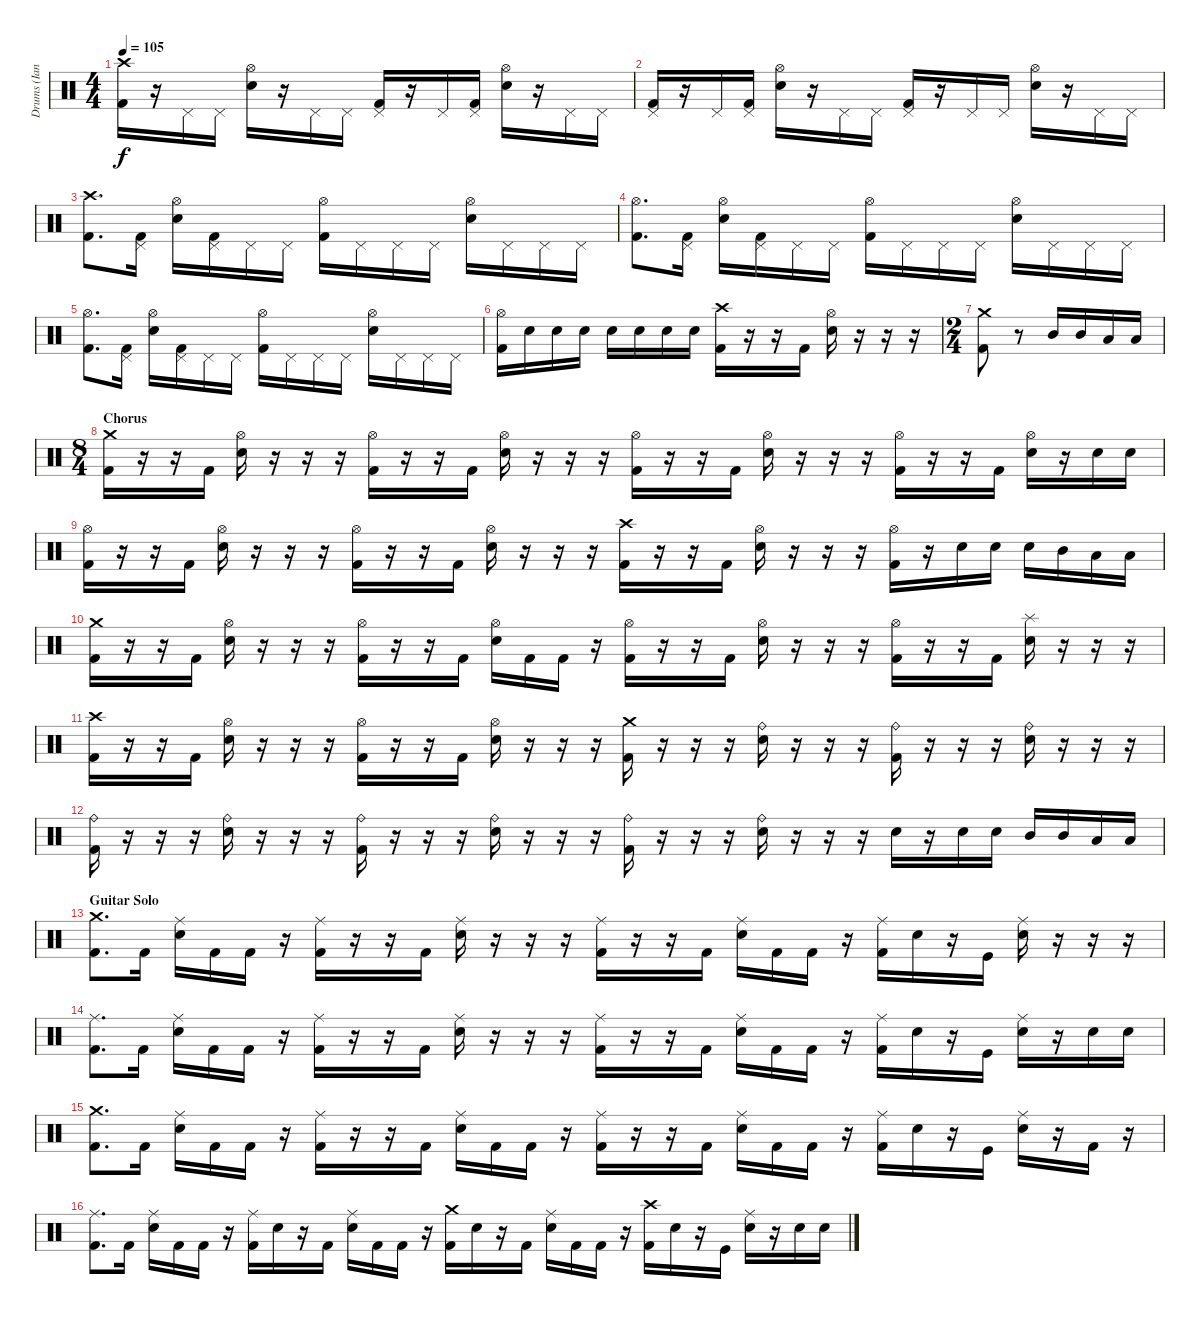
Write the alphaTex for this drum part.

\track ("Drums (Ian Paice)" "Drums (Ian") {instrument percussion}
\staff {score}
\articulation defaults
\ts (4 4)
\tempo 105
\clef neutral
\ks c
("Crash high (hit)" "Kick (hit) 2").16{dy f} r.16 "Pedal Hi-Hat (hit)".16 "Pedal Hi-Hat (hit)".16 ("Hi-Hat (open)" "Electric Snare (hit)").16 r.16 "Pedal Hi-Hat (hit)".16 "Pedal Hi-Hat (hit)".16 ("Pedal Hi-Hat (hit)" "Kick (hit) 2").16 r.16 "Pedal Hi-Hat (hit)".16 ("Pedal Hi-Hat (hit)" "Kick (hit) 2").16 ("Hi-Hat (open)" "Electric Snare (hit)").16 r.16 "Pedal Hi-Hat (hit)".16 "Pedal Hi-Hat (hit)".16 |
("Pedal Hi-Hat (hit)" "Kick (hit) 2").16 r.16 "Pedal Hi-Hat (hit)".16 ("Pedal Hi-Hat (hit)" "Kick (hit) 2").16 ("Hi-Hat (open)" "Electric Snare (hit)").16 r.16 "Pedal Hi-Hat (hit)".16 "Pedal Hi-Hat (hit)".16 ("Pedal Hi-Hat (hit)" "Kick (hit) 2").16 r.16 "Pedal Hi-Hat (hit)".16 "Pedal Hi-Hat (hit)".16 ("Hi-Hat (open)" "Electric Snare (hit)").16 r.16 "Pedal Hi-Hat (hit)".16 "Pedal Hi-Hat (hit)".16 |
("Crash high (hit)" "Kick (hit) 2").8{d} ("Pedal Hi-Hat (hit)" "Kick (hit) 2").16 ("Hi-Hat (open)" "Electric Snare (hit)").16 ("Pedal Hi-Hat (hit)" "Kick (hit) 2").16 "Pedal Hi-Hat (hit)".16 "Pedal Hi-Hat (hit)".16 ("Hi-Hat (open)" "Kick (hit) 2").16 "Pedal Hi-Hat (hit)".16 "Pedal Hi-Hat (hit)".16 "Pedal Hi-Hat (hit)".16 ("Hi-Hat (open)" "Electric Snare (hit)").16 "Pedal Hi-Hat (hit)".16 "Pedal Hi-Hat (hit)".16 "Pedal Hi-Hat (hit)".16 |
("Hi-Hat (open)" "Kick (hit) 2").8{d} ("Pedal Hi-Hat (hit)" "Kick (hit) 2").16 ("Hi-Hat (open)" "Electric Snare (hit)").16 ("Pedal Hi-Hat (hit)" "Kick (hit) 2").16 "Pedal Hi-Hat (hit)".16 "Pedal Hi-Hat (hit)".16 ("Hi-Hat (open)" "Kick (hit) 2").16 "Pedal Hi-Hat (hit)".16 "Pedal Hi-Hat (hit)".16 "Pedal Hi-Hat (hit)".16 ("Hi-Hat (open)" "Electric Snare (hit)").16 "Pedal Hi-Hat (hit)".16 "Pedal Hi-Hat (hit)".16 "Pedal Hi-Hat (hit)".16 |
("Hi-Hat (open)" "Kick (hit) 2").8{d} ("Pedal Hi-Hat (hit)" "Kick (hit) 2").16 ("Hi-Hat (open)" "Electric Snare (hit)").16 ("Pedal Hi-Hat (hit)" "Kick (hit) 2").16 "Pedal Hi-Hat (hit)".16 "Pedal Hi-Hat (hit)".16 ("Hi-Hat (open)" "Kick (hit) 2").16 "Pedal Hi-Hat (hit)".16 "Pedal Hi-Hat (hit)".16 "Pedal Hi-Hat (hit)".16 ("Hi-Hat (open)" "Electric Snare (hit)").16 "Pedal Hi-Hat (hit)".16 "Pedal Hi-Hat (hit)".16 "Pedal Hi-Hat (hit)".16 |
("Hi-Hat (open)" "Kick (hit) 2").16 "Electric Snare (hit)".16 "Electric Snare (hit)".16 "Electric Snare (hit)".16 "Electric Snare (hit)".16 "Electric Snare (hit)".16 "Electric Snare (hit)".16 "Electric Snare (hit)".16 ("Crash high (hit)" "Kick (hit) 2").16 r.16 r.16 "Kick (hit) 2".16 ("Hi-Hat (open)" "Electric Snare (hit)").16 r.16 r.16 r.16 |
\ts (2 4)
("Crash medium (hit)" "Kick (hit) 2").8 r.8 "Mid Tom (hit)".16 "Mid Tom (hit)".16 "Low Tom (hit)".16 "Low Tom (hit)".16 |
\ts (8 4)
\section ("" "Chorus")
("Crash medium (hit)" "Kick (hit) 2").16 r.16 r.16 "Kick (hit) 2".16 ("Hi-Hat (open)" "Electric Snare (hit)").16 r.16 r.16 r.16 ("Hi-Hat (open)" "Kick (hit) 2").16 r.16 r.16 "Kick (hit) 2".16 ("Hi-Hat (open)" "Electric Snare (hit)").16 r.16 r.16 r.16 ("Hi-Hat (open)" "Kick (hit) 2").16 r.16 r.16 "Kick (hit) 2".16 ("Hi-Hat (open)" "Electric Snare (hit)").16 r.16 r.16 r.16 ("Hi-Hat (open)" "Kick (hit) 2").16 r.16 r.16 "Kick (hit) 2".16 ("Hi-Hat (open)" "Electric Snare (hit)").16 r.16 "Electric Snare (hit)".16 "Electric Snare (hit)".16 |
("Hi-Hat (open)" "Kick (hit) 2").16 r.16 r.16 "Kick (hit) 2".16 ("Hi-Hat (open)" "Electric Snare (hit)").16 r.16 r.16 r.16 ("Hi-Hat (open)" "Kick (hit) 2").16 r.16 r.16 "Kick (hit) 2".16 ("Hi-Hat (open)" "Electric Snare (hit)").16 r.16 r.16 r.16 ("Crash high (hit)" "Kick (hit) 2").16 r.16 r.16 "Kick (hit) 2".16 ("Hi-Hat (open)" "Electric Snare (hit)").16 r.16 r.16 r.16 ("Hi-Hat (open)" "Kick (hit) 2").16 r.16 "Electric Snare (hit)".16 "Electric Snare (hit)".16 "Electric Snare (hit)".16 "Mid Tom (hit)".16 "Low Tom (hit)".16 "Low Tom (hit)".16 |
("Crash medium (hit)" "Kick (hit) 2").16 r.16 r.16 "Kick (hit) 2".16 ("Hi-Hat (open)" "Electric Snare (hit)").16 r.16 r.16 r.16 ("Hi-Hat (open)" "Kick (hit) 2").16 r.16 r.16 "Kick (hit) 2".16 ("Hi-Hat (open)" "Electric Snare (hit)").16 "Kick (hit) 2".16 "Kick (hit) 2".16 r.16 ("Hi-Hat (open)" "Kick (hit) 2").16 r.16 r.16 "Kick (hit) 2".16 ("Hi-Hat (open)" "Electric Snare (hit)").16 r.16 r.16 r.16 ("Hi-Hat (open)" "Kick (hit) 2").16 r.16 r.16 "Kick (hit) 2".16 ("Splash (hit)" "Electric Snare (hit)").16 r.16 r.16 r.16 |
("Crash high (hit)" "Kick (hit) 2").16 r.16 r.16 "Kick (hit) 2".16 ("Hi-Hat (open)" "Electric Snare (hit)").16 r.16 r.16 r.16 ("Hi-Hat (open)" "Kick (hit) 2").16 r.16 r.16 "Kick (hit) 2".16 ("Hi-Hat (open)" "Electric Snare (hit)").16 r.16 r.16 r.16 ("Crash medium (hit)" "Kick (hit) 2").16 r.16 r.16 r.16 ("Ride (bell)" "Electric Snare (hit)").16 r.16 r.16 r.16 ("Ride (bell)" "Kick (hit) 2").16 r.16 r.16 r.16 ("Ride (bell)" "Electric Snare (hit)").16 r.16 r.16 r.16 |
("Ride (bell)" "Kick (hit) 2").16 r.16 r.16 r.16 ("Ride (bell)" "Electric Snare (hit)").16 r.16 r.16 r.16 ("Ride (bell)" "Kick (hit) 2").16 r.16 r.16 r.16 ("Ride (bell)" "Electric Snare (hit)").16 r.16 r.16 r.16 ("Ride (bell)" "Kick (hit) 2").16 r.16 r.16 r.16 ("Ride (bell)" "Electric Snare (hit)").16 r.16 r.16 r.16 "Electric Snare (hit)".16 r.16 "Electric Snare (hit)".16 "Electric Snare (hit)".16 "Mid Tom (hit)".16 "Mid Tom (hit)".16 "Low Tom (hit)".16 "Low Tom (hit)".16 |
\section ("" "Guitar Solo")
("Crash medium (hit)" "Kick (hit) 2").8{d} "Kick (hit) 2".16 ("Ride (middle)" "Electric Snare (hit)").16 "Kick (hit) 2".16 "Kick (hit) 2".16 r.16 ("Ride (middle)" "Kick (hit) 2").16 r.16 r.16 "Kick (hit) 2".16 ("Ride (middle)" "Electric Snare (hit)").16 r.16 r.16 r.16 ("Ride (middle)" "Kick (hit) 2").16 r.16 r.16 "Kick (hit) 2".16 ("Ride (middle)" "Electric Snare (hit)").16 "Kick (hit) 2".16 "Kick (hit) 2".16 r.16 ("Ride (middle)" "Kick (hit) 2").16 "Electric Snare (hit)".16 r.16 "Kick (hit)".16 ("Ride (middle)" "Electric Snare (hit)").16 r.16 r.16 r.16 |
("Ride (middle)" "Kick (hit) 2").8{d} "Kick (hit) 2".16 ("Ride (middle)" "Electric Snare (hit)").16 "Kick (hit) 2".16 "Kick (hit) 2".16 r.16 ("Ride (middle)" "Kick (hit) 2").16 r.16 r.16 "Kick (hit) 2".16 ("Ride (middle)" "Electric Snare (hit)").16 r.16 r.16 r.16 ("Ride (middle)" "Kick (hit) 2").16 r.16 r.16 "Kick (hit) 2".16 ("Ride (middle)" "Electric Snare (hit)").16 "Kick (hit) 2".16 "Kick (hit) 2".16 r.16 ("Ride (middle)" "Kick (hit) 2").16 "Electric Snare (hit)".16 r.16 "Kick (hit)".16 ("Ride (middle)" "Electric Snare (hit)").16 r.16 "Electric Snare (hit)".16 "Electric Snare (hit)".16 |
("Crash medium (hit)" "Kick (hit) 2").8{d} "Kick (hit) 2".16 ("Ride (middle)" "Electric Snare (hit)").16 "Kick (hit) 2".16 "Kick (hit) 2".16 r.16 ("Ride (middle)" "Kick (hit) 2").16 r.16 r.16 "Kick (hit) 2".16 ("Ride (middle)" "Electric Snare (hit)").16 "Kick (hit) 2".16 "Kick (hit) 2".16 r.16 ("Ride (middle)" "Kick (hit) 2").16 r.16 r.16 "Kick (hit) 2".16 ("Ride (middle)" "Electric Snare (hit)").16 "Kick (hit) 2".16 "Kick (hit) 2".16 r.16 ("Ride (middle)" "Kick (hit) 2").16 "Electric Snare (hit)".16 r.16 "Kick (hit)".16 ("Ride (middle)" "Electric Snare (hit)").16 r.16 "Kick (hit) 2".16 r.16 |
("Ride (middle)" "Kick (hit) 2").8{d} "Kick (hit) 2".16 ("Ride (middle)" "Electric Snare (hit)").16 "Kick (hit) 2".16 "Kick (hit) 2".16 r.16 ("Ride (middle)" "Kick (hit) 2").16 "Electric Snare (hit)".16 r.16 "Kick (hit) 2".16 ("Ride (middle)" "Electric Snare (hit)").16 "Kick (hit) 2".16 "Kick (hit) 2".16 r.16 ("Crash medium (hit)" "Kick (hit) 2").16 "Electric Snare (hit)".16 r.16 "Kick (hit) 2".16 ("Ride (middle)" "Electric Snare (hit)").16 "Kick (hit) 2".16 "Kick (hit) 2".16 r.16 ("Crash high (hit)" "Kick (hit) 2").16 "Electric Snare (hit)".16 r.16 "Kick (hit)".16 ("Ride (middle)" "Electric Snare (hit)").16 r.16 "Electric Snare (hit)".16 "Electric Snare (hit)".16
